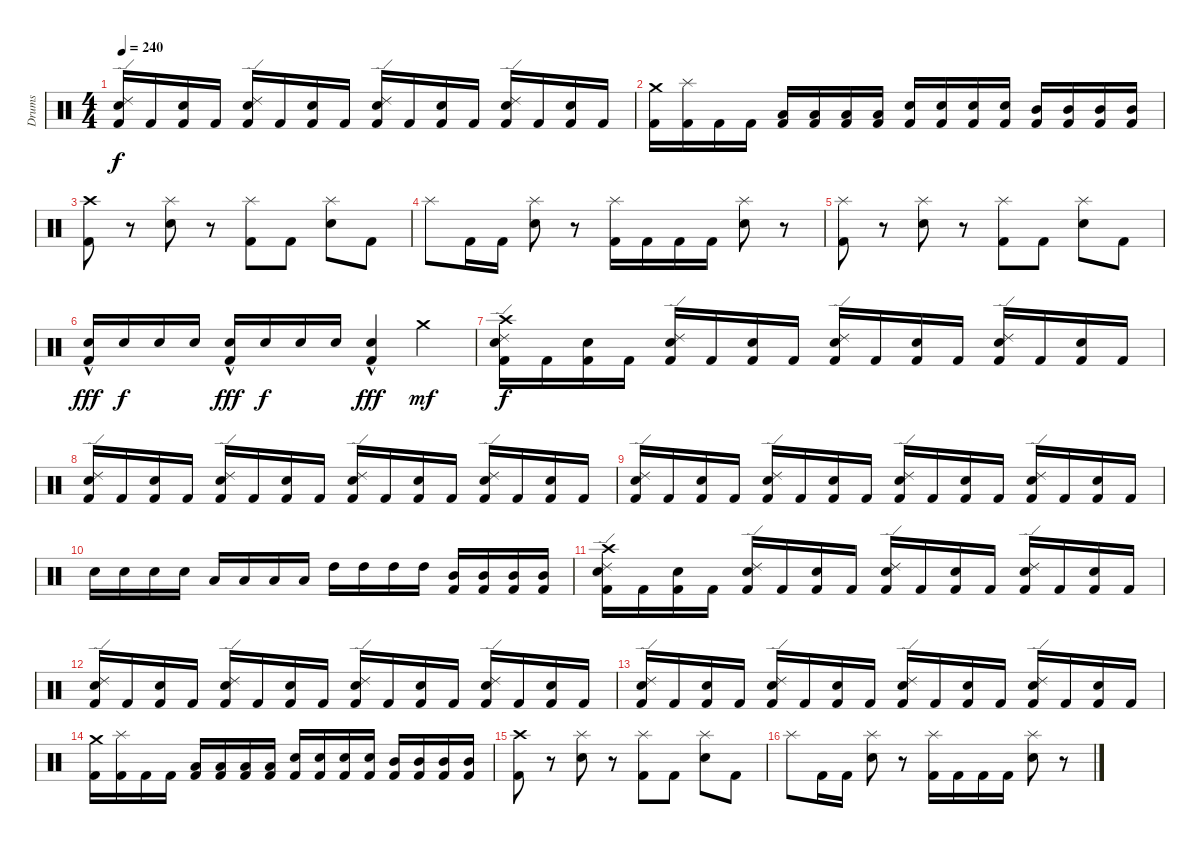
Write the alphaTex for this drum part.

\track ("Drums" "Drums") {instrument percussion}
\staff {score}
\articulation defaults
\ts (4 4)
\tempo 240
\clef neutral
\ks c
("Ride (edge) 2" "Electric Snare (hit)" "Kick (hit) 2").16{dy f} "Kick (hit) 2".16 ("Electric Snare (hit)" "Kick (hit) 2").16 "Kick (hit) 2".16 ("Ride (edge) 2" "Electric Snare (hit)" "Kick (hit) 2").16 "Kick (hit) 2".16 ("Electric Snare (hit)" "Kick (hit) 2").16 "Kick (hit) 2".16 ("Ride (edge) 2" "Electric Snare (hit)" "Kick (hit) 2").16 "Kick (hit) 2".16 ("Electric Snare (hit)" "Kick (hit) 2").16 "Kick (hit) 2".16 ("Ride (edge) 2" "Electric Snare (hit)" "Kick (hit) 2").16 "Kick (hit) 2".16 ("Electric Snare (hit)" "Kick (hit) 2").16 "Kick (hit) 2".16 |
("Crash medium (hit)" "Kick (hit) 2").16 ("Splash (hit)" "Kick (hit) 2").16 "Kick (hit) 2".16 "Kick (hit) 2".16 ("Low Tom (hit)" "Kick (hit) 2").16 ("Low Tom (hit)" "Kick (hit) 2").16 ("Low Tom (hit)" "Kick (hit) 2").16 ("Low Tom (hit)" "Kick (hit) 2").16 ("Electric Snare (hit)" "Kick (hit) 2").16 ("Electric Snare (hit)" "Kick (hit) 2").16 ("Electric Snare (hit)" "Kick (hit) 2").16 ("Electric Snare (hit)" "Kick (hit) 2").16 ("Mid Tom (hit)" "Kick (hit) 2").16 ("Mid Tom (hit)" "Kick (hit) 2").16 ("Mid Tom (hit)" "Kick (hit) 2").16 ("Mid Tom (hit)" "Kick (hit) 2").16 |
("Crash high (hit)" "Kick (hit) 2").8 r.8 ("Splash (hit)" "Electric Snare (hit)").8 r.8 ("Splash (hit)" "Kick (hit) 2").8 "Kick (hit) 2".8 ("Splash (hit)" "Electric Snare (hit)").8 "Kick (hit) 2".8 |
"Splash (hit)".8 "Kick (hit) 2".16 "Kick (hit) 2".16 ("Splash (hit)" "Electric Snare (hit)").8 r.8 ("Splash (hit)" "Kick (hit) 2").16 "Kick (hit) 2".16 "Kick (hit) 2".16 "Kick (hit) 2".16 ("Splash (hit)" "Electric Snare (hit)").8 r.8 |
("Splash (hit)" "Kick (hit) 2").8 r.8 ("Splash (hit)" "Electric Snare (hit)").8 r.8 ("Splash (hit)" "Kick (hit) 2").8 "Kick (hit) 2".8 ("Splash (hit)" "Electric Snare (hit)").8 "Kick (hit) 2".8 |
("Electric Snare (hit)"{hac} "Kick (hit) 2").16{dy fff} "Electric Snare (hit)".16{dy f} "Electric Snare (hit)".16 "Electric Snare (hit)".16 ("Electric Snare (hit)"{hac} "Kick (hit) 2").16{dy fff} "Electric Snare (hit)".16{dy f} "Electric Snare (hit)".16 "Electric Snare (hit)".16 ("Electric Snare (hit)"{hac} "Kick (hit) 2").4{dy fff} "Crash medium (hit)".4{dy mf} |
("Crash high (hit)" "Ride (edge) 2" "Electric Snare (hit)" "Kick (hit) 2").16{dy f} "Kick (hit) 2".16 ("Electric Snare (hit)" "Kick (hit) 2").16 "Kick (hit) 2".16 ("Ride (edge) 2" "Electric Snare (hit)" "Kick (hit) 2").16 "Kick (hit) 2".16 ("Electric Snare (hit)" "Kick (hit) 2").16 "Kick (hit) 2".16 ("Ride (edge) 2" "Electric Snare (hit)" "Kick (hit) 2").16 "Kick (hit) 2".16 ("Electric Snare (hit)" "Kick (hit) 2").16 "Kick (hit) 2".16 ("Ride (edge) 2" "Electric Snare (hit)" "Kick (hit) 2").16 "Kick (hit) 2".16 ("Electric Snare (hit)" "Kick (hit) 2").16 "Kick (hit) 2".16 |
("Ride (edge) 2" "Electric Snare (hit)" "Kick (hit) 2").16 "Kick (hit) 2".16 ("Electric Snare (hit)" "Kick (hit) 2").16 "Kick (hit) 2".16 ("Ride (edge) 2" "Electric Snare (hit)" "Kick (hit) 2").16 "Kick (hit) 2".16 ("Electric Snare (hit)" "Kick (hit) 2").16 "Kick (hit) 2".16 ("Ride (edge) 2" "Electric Snare (hit)" "Kick (hit) 2").16 "Kick (hit) 2".16 ("Electric Snare (hit)" "Kick (hit) 2").16 "Kick (hit) 2".16 ("Ride (edge) 2" "Electric Snare (hit)" "Kick (hit) 2").16 "Kick (hit) 2".16 ("Electric Snare (hit)" "Kick (hit) 2").16 "Kick (hit) 2".16 |
("Ride (edge) 2" "Electric Snare (hit)" "Kick (hit) 2").16 "Kick (hit) 2".16 ("Electric Snare (hit)" "Kick (hit) 2").16 "Kick (hit) 2".16 ("Ride (edge) 2" "Electric Snare (hit)" "Kick (hit) 2").16 "Kick (hit) 2".16 ("Electric Snare (hit)" "Kick (hit) 2").16 "Kick (hit) 2".16 ("Ride (edge) 2" "Electric Snare (hit)" "Kick (hit) 2").16 "Kick (hit) 2".16 ("Electric Snare (hit)" "Kick (hit) 2").16 "Kick (hit) 2".16 ("Ride (edge) 2" "Electric Snare (hit)" "Kick (hit) 2").16 "Kick (hit) 2".16 ("Electric Snare (hit)" "Kick (hit) 2").16 "Kick (hit) 2".16 |
"Electric Snare (hit)".16 "Electric Snare (hit)".16 "Electric Snare (hit)".16 "Electric Snare (hit)".16 "Low Tom (hit)".16 "Low Tom (hit)".16 "Low Tom (hit)".16 "Low Tom (hit)".16 "High Tom (hit)".16 "High Tom (hit)".16 "High Tom (hit)".16 "High Tom (hit)".16 ("Mid Tom (hit)" "Kick (hit) 2").16 ("Mid Tom (hit)" "Kick (hit) 2").16 ("Mid Tom (hit)" "Kick (hit) 2").16 ("Mid Tom (hit)" "Kick (hit) 2").16 |
("Crash high (hit)" "Ride (edge) 2" "Electric Snare (hit)" "Kick (hit) 2").16 "Kick (hit) 2".16 ("Electric Snare (hit)" "Kick (hit) 2").16 "Kick (hit) 2".16 ("Ride (edge) 2" "Electric Snare (hit)" "Kick (hit) 2").16 "Kick (hit) 2".16 ("Electric Snare (hit)" "Kick (hit) 2").16 "Kick (hit) 2".16 ("Ride (edge) 2" "Electric Snare (hit)" "Kick (hit) 2").16 "Kick (hit) 2".16 ("Electric Snare (hit)" "Kick (hit) 2").16 "Kick (hit) 2".16 ("Ride (edge) 2" "Electric Snare (hit)" "Kick (hit) 2").16 "Kick (hit) 2".16 ("Electric Snare (hit)" "Kick (hit) 2").16 "Kick (hit) 2".16 |
("Ride (edge) 2" "Electric Snare (hit)" "Kick (hit) 2").16 "Kick (hit) 2".16 ("Electric Snare (hit)" "Kick (hit) 2").16 "Kick (hit) 2".16 ("Ride (edge) 2" "Electric Snare (hit)" "Kick (hit) 2").16 "Kick (hit) 2".16 ("Electric Snare (hit)" "Kick (hit) 2").16 "Kick (hit) 2".16 ("Ride (edge) 2" "Electric Snare (hit)" "Kick (hit) 2").16 "Kick (hit) 2".16 ("Electric Snare (hit)" "Kick (hit) 2").16 "Kick (hit) 2".16 ("Ride (edge) 2" "Electric Snare (hit)" "Kick (hit) 2").16 "Kick (hit) 2".16 ("Electric Snare (hit)" "Kick (hit) 2").16 "Kick (hit) 2".16 |
("Ride (edge) 2" "Electric Snare (hit)" "Kick (hit) 2").16 "Kick (hit) 2".16 ("Electric Snare (hit)" "Kick (hit) 2").16 "Kick (hit) 2".16 ("Ride (edge) 2" "Electric Snare (hit)" "Kick (hit) 2").16 "Kick (hit) 2".16 ("Electric Snare (hit)" "Kick (hit) 2").16 "Kick (hit) 2".16 ("Ride (edge) 2" "Electric Snare (hit)" "Kick (hit) 2").16 "Kick (hit) 2".16 ("Electric Snare (hit)" "Kick (hit) 2").16 "Kick (hit) 2".16 ("Ride (edge) 2" "Electric Snare (hit)" "Kick (hit) 2").16 "Kick (hit) 2".16 ("Electric Snare (hit)" "Kick (hit) 2").16 "Kick (hit) 2".16 |
("Crash medium (hit)" "Kick (hit) 2").16 ("Splash (hit)" "Kick (hit) 2").16 "Kick (hit) 2".16 "Kick (hit) 2".16 ("Low Tom (hit)" "Kick (hit) 2").16 ("Low Tom (hit)" "Kick (hit) 2").16 ("Low Tom (hit)" "Kick (hit) 2").16 ("Low Tom (hit)" "Kick (hit) 2").16 ("Electric Snare (hit)" "Kick (hit) 2").16 ("Electric Snare (hit)" "Kick (hit) 2").16 ("Electric Snare (hit)" "Kick (hit) 2").16 ("Electric Snare (hit)" "Kick (hit) 2").16 ("Mid Tom (hit)" "Kick (hit) 2").16 ("Mid Tom (hit)" "Kick (hit) 2").16 ("Mid Tom (hit)" "Kick (hit) 2").16 ("Mid Tom (hit)" "Kick (hit) 2").16 |
("Crash high (hit)" "Kick (hit) 2").8 r.8 ("Splash (hit)" "Electric Snare (hit)").8 r.8 ("Splash (hit)" "Kick (hit) 2").8 "Kick (hit) 2".8 ("Splash (hit)" "Electric Snare (hit)").8 "Kick (hit) 2".8 |
"Splash (hit)".8 "Kick (hit) 2".16 "Kick (hit) 2".16 ("Splash (hit)" "Electric Snare (hit)").8 r.8 ("Splash (hit)" "Kick (hit) 2").16 "Kick (hit) 2".16 "Kick (hit) 2".16 "Kick (hit) 2".16 ("Splash (hit)" "Electric Snare (hit)").8 r.8
